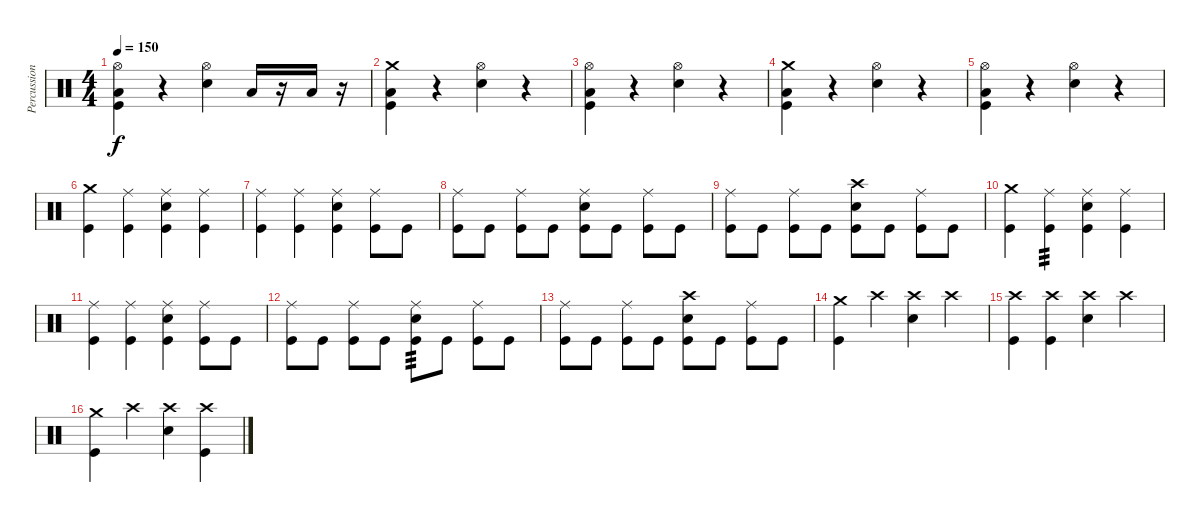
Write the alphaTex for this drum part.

\track ("Percussions" "Percussion") {instrument percussion}
\staff {score}
\articulation defaults
\ts (4 4)
\tempo 150
\clef neutral
\ks c
("Hi-Hat (open)" "Low Floor Tom (hit)" "Kick (hit)").4{dy f} r.4 ("Hi-Hat (open)" "Snare (hit) 2").4 "Low Floor Tom (hit)".16 r.16 "Low Floor Tom (hit)".16 r.16 |
("Crash medium (hit)" "Low Floor Tom (hit)" "Kick (hit)").4 r.4 ("Hi-Hat (open)" "Snare (hit) 2").4 r.4 |
("Hi-Hat (open)" "Low Floor Tom (hit)" "Kick (hit)").4 r.4 ("Hi-Hat (open)" "Snare (hit) 2").4 r.4 |
("Crash medium (hit)" "Low Floor Tom (hit)" "Kick (hit)").4 r.4 ("Hi-Hat (open)" "Snare (hit) 2").4 r.4 |
("Hi-Hat (open)" "Low Floor Tom (hit)" "Kick (hit)").4 r.4 ("Hi-Hat (open)" "Snare (hit) 2").4 r.4 |
("Crash medium (hit)" "Kick (hit)").4 ("Ride (middle)" "Kick (hit)").4 ("Ride (middle)" "Snare (hit) 2" "Kick (hit)").4 ("Ride (middle)" "Kick (hit)").4 |
("Ride (middle)" "Kick (hit)").4 ("Ride (middle)" "Kick (hit)").4 ("Ride (middle)" "Snare (hit) 2" "Kick (hit)").4 ("Ride (middle)" "Kick (hit)").8 "Kick (hit)".8 |
("Ride (middle)" "Kick (hit)").8 "Kick (hit)".8 ("Ride (middle)" "Kick (hit)").8 "Kick (hit)".8 ("Ride (middle)" "Snare (hit) 2" "Kick (hit)").8 "Kick (hit)".8 ("Ride (middle)" "Kick (hit)").8 "Kick (hit)".8 |
("Ride (middle)" "Kick (hit)").8 "Kick (hit)".8 ("Ride (middle)" "Kick (hit)").8 "Kick (hit)".8 ("Crash high (hit)" "Snare (hit) 2" "Kick (hit)").8 "Kick (hit)".8 ("Ride (middle)" "Kick (hit)").8 "Kick (hit)".8 |
("Crash medium (hit)" "Kick (hit)").4 ("Ride (middle)" "Kick (hit)").4{tp 3} ("Ride (middle)" "Snare (hit) 2" "Kick (hit)").4 ("Ride (middle)" "Kick (hit)").4 |
("Ride (middle)" "Kick (hit)").4 ("Ride (middle)" "Kick (hit)").4 ("Ride (middle)" "Snare (hit) 2" "Kick (hit)").4 ("Ride (middle)" "Kick (hit)").8 "Kick (hit)".8 |
("Ride (middle)" "Kick (hit)").8 "Kick (hit)".8 ("Ride (middle)" "Kick (hit)").8 "Kick (hit)".8 ("Ride (middle)" "Snare (hit) 2" "Kick (hit)").8{tp 3} "Kick (hit)".8 ("Ride (middle)" "Kick (hit)").8 "Kick (hit)".8 |
("Ride (middle)" "Kick (hit)").8 "Kick (hit)".8 ("Ride (middle)" "Kick (hit)").8 "Kick (hit)".8 ("Crash high (hit)" "Snare (hit) 2" "Kick (hit)").8 "Kick (hit)".8 ("Ride (middle)" "Kick (hit)").8 "Kick (hit)".8 |
("Crash medium (hit)" "Kick (hit)").4 "Crash high (hit)".4 ("Crash high (hit)" "Snare (hit) 2").4 "Crash high (hit)".4 |
("Crash high (hit)" "Kick (hit)").4 ("Crash high (hit)" "Kick (hit)").4 ("Crash high (hit)" "Snare (hit) 2").4 "Crash high (hit)".4 |
("Crash medium (hit)" "Kick (hit)").4 "Crash high (hit)".4 ("Crash high (hit)" "Snare (hit) 2").4 ("Crash high (hit)" "Kick (hit)").4
